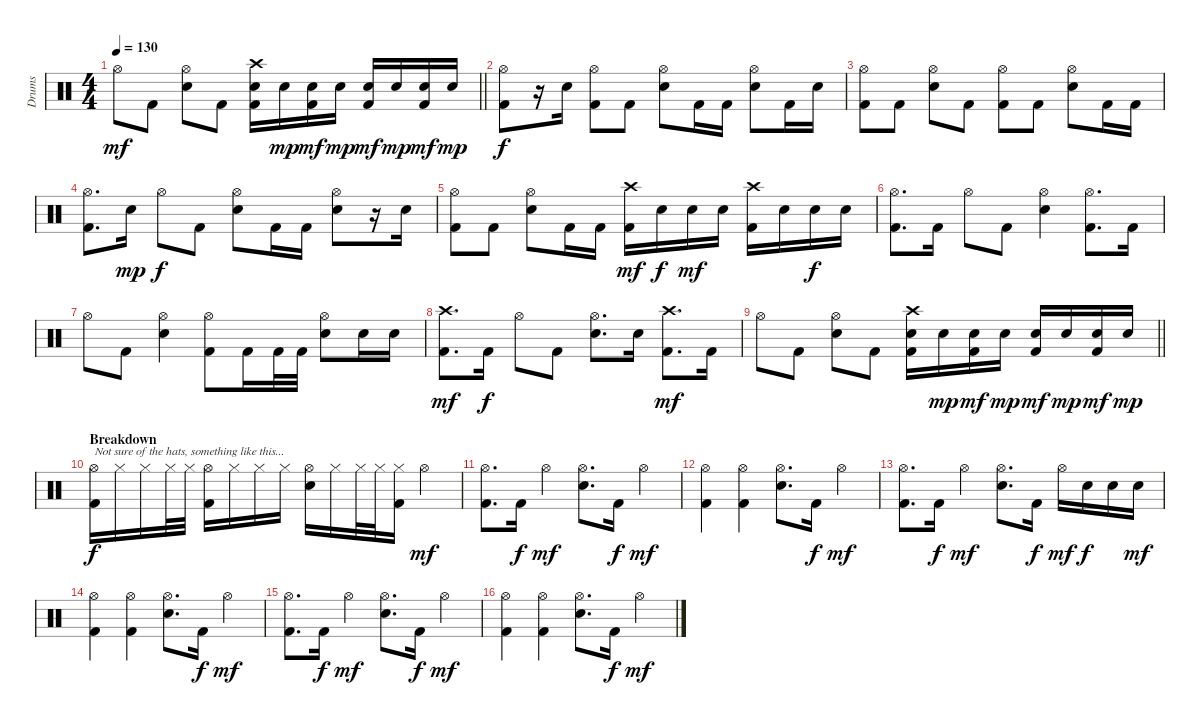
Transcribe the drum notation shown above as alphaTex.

\track ("Drums" "Drums") {instrument percussion}
\staff {score}
\articulation defaults
\ts (4 4)
\tempo 130
\clef neutral
\barLineRight lightlight
\ks c "Hi-Hat (open)".8{dy mf} "Kick (hit) 2".8
("Hi-Hat (open)" "Snare (hit) 2").8 "Kick (hit) 2".8 ("Crash high (hit)" "Snare (hit) 2" "Kick (hit) 2").16 "Snare (hit) 2".16{dy mp} ("Snare (hit) 2" "Kick (hit) 2").16{dy mf} "Snare (hit) 2".16{dy mp} ("Snare (hit) 2" "Kick (hit) 2").16{dy mf} "Snare (hit) 2".16{dy mp} ("Snare (hit) 2" "Kick (hit) 2").16{dy mf} "Snare (hit) 2".16{dy mp} |
("Hi-Hat (open)" "Kick (hit) 2").8{dy f} r.16 "Snare (hit) 2".16 ("Hi-Hat (open)" "Kick (hit) 2").8 "Kick (hit) 2".8 ("Hi-Hat (open)" "Snare (hit) 2").8 "Kick (hit) 2".16 "Kick (hit) 2".16 ("Hi-Hat (open)" "Snare (hit) 2").8 "Kick (hit) 2".16 "Snare (hit) 2".16 |
("Hi-Hat (open)" "Kick (hit) 2").8 "Kick (hit) 2".8 ("Hi-Hat (open)" "Snare (hit) 2").8 "Kick (hit) 2".8 ("Hi-Hat (open)" "Kick (hit) 2").8 "Kick (hit) 2".8 ("Hi-Hat (open)" "Snare (hit) 2").8 "Kick (hit) 2".16 "Kick (hit) 2".16 |
("Hi-Hat (open)" "Kick (hit) 2").8{d} "Snare (hit) 2".16{dy mp} "Hi-Hat (open)".8{dy f} "Kick (hit) 2".8 ("Hi-Hat (open)" "Snare (hit) 2").8 "Kick (hit) 2".16 "Kick (hit) 2".16 ("Hi-Hat (open)" "Snare (hit) 2").8 r.16 "Snare (hit) 2".16 |
("Hi-Hat (open)" "Kick (hit) 2").8 "Kick (hit) 2".8 ("Hi-Hat (open)" "Snare (hit) 2").8 "Kick (hit) 2".16 "Kick (hit) 2".16 ("Crash high (hit)" "Kick (hit) 2").16{dy mf} "Snare (hit) 2".16{dy f} "Snare (hit) 2".16{dy mf} "Snare (hit) 2".16 ("Crash high (hit)" "Kick (hit) 2").16 "Snare (hit) 2".16 "Snare (hit) 2".16{dy f} "Snare (hit) 2".16 |
("Hi-Hat (open)" "Kick (hit) 2").8{d} "Kick (hit) 2".16 "Hi-Hat (open)".8 "Kick (hit) 2".8 ("Hi-Hat (open)" "Snare (hit) 2").4 ("Hi-Hat (open)" "Kick (hit) 2").8{d} "Kick (hit) 2".16 |
"Hi-Hat (open)".8 "Kick (hit) 2".8 ("Hi-Hat (open)" "Snare (hit) 2").4 ("Hi-Hat (open)" "Kick (hit) 2").8 "Kick (hit) 2".16 "Kick (hit) 2".32 "Kick (hit) 2".32 ("Hi-Hat (open)" "Snare (hit) 2").8 "Snare (hit) 2".16 "Snare (hit) 2".16 |
("Crash high (hit)" "Kick (hit) 2").8{d dy mf} "Kick (hit) 2".16{dy f} "Hi-Hat (open)".8 "Kick (hit) 2".8 ("Hi-Hat (open)" "Snare (hit) 2").8{d} "Snare (hit) 2".16 ("Crash high (hit)" "Kick (hit) 2").8{d dy mf} "Kick (hit) 2".16 |
\barLineRight lightlight "Hi-Hat (open)".8 "Kick (hit) 2".8
("Hi-Hat (open)" "Snare (hit) 2").8 "Kick (hit) 2".8 ("Crash high (hit)" "Snare (hit) 2" "Kick (hit) 2").16 "Snare (hit) 2".16{dy mp} ("Snare (hit) 2" "Kick (hit) 2").16{dy mf} "Snare (hit) 2".16{dy mp} ("Snare (hit) 2" "Kick (hit) 2").16{dy mf} "Snare (hit) 2".16{dy mp} ("Snare (hit) 2" "Kick (hit) 2").16{dy mf} "Snare (hit) 2".16{dy mp} |
\section ("" "Breakdown")
("Hi-Hat (open)" "Kick (hit) 2").16{txt "Not sure of the hats, something like this..." dy f} "Hi-Hat (closed)".16 "Hi-Hat (closed)".16 "Hi-Hat (closed)".32 "Hi-Hat (closed)".32 ("Hi-Hat (open)" "Kick (hit) 2").16 "Hi-Hat (closed)".16 "Hi-Hat (closed)".16 "Hi-Hat (closed)".16 ("Hi-Hat (open)" "Snare (hit) 2").16 "Hi-Hat (closed)".16 "Hi-Hat (closed)".32 "Hi-Hat (closed)".32 ("Hi-Hat (closed)" "Kick (hit) 2").16 "Hi-Hat (open)".4{dy mf} |
("Hi-Hat (open)" "Kick (hit) 2").8{d} "Kick (hit) 2".16{dy f} "Hi-Hat (open)".4{dy mf} ("Hi-Hat (open)" "Snare (hit) 2").8{d} "Kick (hit) 2".16{dy f} "Hi-Hat (open)".4{dy mf} |
("Hi-Hat (open)" "Kick (hit) 2").4 ("Hi-Hat (open)" "Kick (hit) 2").4 ("Hi-Hat (open)" "Snare (hit) 2").8{d} "Kick (hit) 2".16{dy f} "Hi-Hat (open)".4{dy mf} |
("Hi-Hat (open)" "Kick (hit) 2").8{d} "Kick (hit) 2".16{dy f} "Hi-Hat (open)".4{dy mf} ("Hi-Hat (open)" "Snare (hit) 2").8{d} "Kick (hit) 2".16{dy f} "Hi-Hat (open)".16{dy mf} "Snare (hit) 2".16{dy f} "Snare (hit) 2".16 "Snare (hit) 2".16{dy mf} |
("Hi-Hat (open)" "Kick (hit) 2").4 ("Hi-Hat (open)" "Kick (hit) 2").4 ("Hi-Hat (open)" "Snare (hit) 2").8{d} "Kick (hit) 2".16{dy f} "Hi-Hat (open)".4{dy mf} |
("Hi-Hat (open)" "Kick (hit) 2").8{d} "Kick (hit) 2".16{dy f} "Hi-Hat (open)".4{dy mf} ("Hi-Hat (open)" "Snare (hit) 2").8{d} "Kick (hit) 2".16{dy f} "Hi-Hat (open)".4{dy mf} |
("Hi-Hat (open)" "Kick (hit) 2").4 ("Hi-Hat (open)" "Kick (hit) 2").4 ("Hi-Hat (open)" "Snare (hit) 2").8{d} "Kick (hit) 2".16{dy f} "Hi-Hat (open)".4{dy mf}
